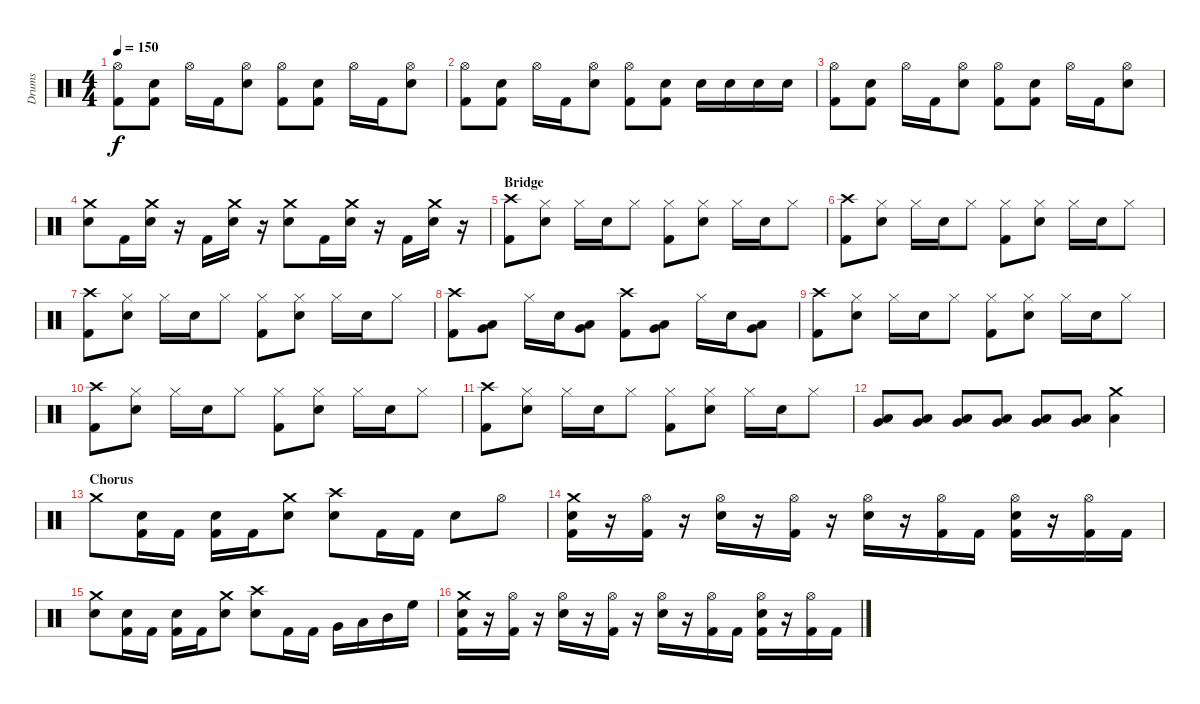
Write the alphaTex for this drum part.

\track ("Drums" "Drums") {instrument percussion}
\staff {score}
\articulation defaults
\ts (4 4)
\tempo 150
\clef neutral
\ks c
("Kick (hit) 2" "Hi-Hat (open)").8{dy f} ("Kick (hit) 2" "Snare (hit) 2").8 "Hi-Hat (open)".16 "Kick (hit) 2".16 ("Snare (hit) 2" "Hi-Hat (open)").8 ("Kick (hit) 2" "Hi-Hat (open)").8 ("Kick (hit) 2" "Snare (hit) 2").8 "Hi-Hat (open)".16 "Kick (hit) 2".16 ("Snare (hit) 2" "Hi-Hat (open)").8 |
("Kick (hit) 2" "Hi-Hat (open)").8 ("Kick (hit) 2" "Snare (hit) 2").8 "Hi-Hat (open)".16 "Kick (hit) 2".16 ("Snare (hit) 2" "Hi-Hat (open)").8 ("Kick (hit) 2" "Hi-Hat (open)").8 ("Kick (hit) 2" "Snare (hit) 2").8 "Snare (hit) 2".16 "Snare (hit) 2".16 "Snare (hit) 2".16 "Snare (hit) 2".16 |
("Kick (hit) 2" "Hi-Hat (open)").8 ("Kick (hit) 2" "Snare (hit) 2").8 "Hi-Hat (open)".16 "Kick (hit) 2".16 ("Snare (hit) 2" "Hi-Hat (open)").8 ("Kick (hit) 2" "Hi-Hat (open)").8 ("Kick (hit) 2" "Snare (hit) 2").8 "Hi-Hat (open)".16 "Kick (hit) 2".16 ("Snare (hit) 2" "Hi-Hat (open)").8 |
("Snare (hit) 2" "Crash medium (hit)").8 "Kick (hit) 2".16 ("Snare (hit) 2" "Crash medium (hit)").16 r.16 "Kick (hit) 2".16 ("Snare (hit) 2" "Crash medium (hit)").16 r.16 ("Snare (hit) 2" "Crash medium (hit)").8 "Kick (hit) 2".16 ("Snare (hit) 2" "Crash medium (hit)").16 r.16 "Kick (hit) 2".16 ("Snare (hit) 2" "Crash medium (hit)").16 r.16 |
\section ("" "Bridge")
("Kick (hit) 2" "Crash high (hit)").8 ("Snare (hit) 2" "Hi-Hat (closed)").8 "Hi-Hat (closed)".16 "Snare (hit) 2".16 "Hi-Hat (closed)".8 ("Kick (hit) 2" "Hi-Hat (closed)").8 ("Snare (hit) 2" "Hi-Hat (closed)").8 "Hi-Hat (closed)".16 "Snare (hit) 2".16 "Hi-Hat (closed)".8 |
("Kick (hit) 2" "Crash high (hit)").8 ("Snare (hit) 2" "Hi-Hat (closed)").8 "Hi-Hat (closed)".16 "Snare (hit) 2".16 "Hi-Hat (closed)".8 ("Kick (hit) 2" "Hi-Hat (closed)").8 ("Snare (hit) 2" "Hi-Hat (closed)").8 "Hi-Hat (closed)".16 "Snare (hit) 2".16 "Hi-Hat (closed)".8 |
("Kick (hit) 2" "Crash high (hit)").8 ("Snare (hit) 2" "Hi-Hat (closed)").8 "Hi-Hat (closed)".16 "Snare (hit) 2".16 "Hi-Hat (closed)".8 ("Kick (hit) 2" "Hi-Hat (closed)").8 ("Snare (hit) 2" "Hi-Hat (closed)").8 "Hi-Hat (closed)".16 "Snare (hit) 2".16 "Hi-Hat (closed)".8 |
("Kick (hit) 2" "Crash high (hit)").8 ("Low Tom (hit)" "Very Low Tom (hit)").8 "Hi-Hat (closed)".16 "Snare (hit) 2".16 ("Low Tom (hit)" "Very Low Tom (hit)").8 ("Kick (hit) 2" "Crash high (hit)").8 ("Low Tom (hit)" "Very Low Tom (hit)").8 "Hi-Hat (closed)".16 "Snare (hit) 2".16 ("Low Tom (hit)" "Very Low Tom (hit)").8 |
("Kick (hit) 2" "Crash high (hit)").8 ("Snare (hit) 2" "Hi-Hat (closed)").8 "Hi-Hat (closed)".16 "Snare (hit) 2".16 "Hi-Hat (closed)".8 ("Kick (hit) 2" "Hi-Hat (closed)").8 ("Snare (hit) 2" "Hi-Hat (closed)").8 "Hi-Hat (closed)".16 "Snare (hit) 2".16 "Hi-Hat (closed)".8 |
("Kick (hit) 2" "Crash high (hit)").8 ("Snare (hit) 2" "Hi-Hat (closed)").8 "Hi-Hat (closed)".16 "Snare (hit) 2".16 "Hi-Hat (closed)".8 ("Kick (hit) 2" "Hi-Hat (closed)").8 ("Snare (hit) 2" "Hi-Hat (closed)").8 "Hi-Hat (closed)".16 "Snare (hit) 2".16 "Hi-Hat (closed)".8 |
("Kick (hit) 2" "Crash high (hit)").8 ("Snare (hit) 2" "Hi-Hat (closed)").8 "Hi-Hat (closed)".16 "Snare (hit) 2".16 "Hi-Hat (closed)".8 ("Kick (hit) 2" "Hi-Hat (closed)").8 ("Snare (hit) 2" "Hi-Hat (closed)").8 "Hi-Hat (closed)".16 "Snare (hit) 2".16 "Hi-Hat (closed)".8 |
("Low Tom (hit)" "Very Low Tom (hit)").8 ("Low Tom (hit)" "Very Low Tom (hit)").8 ("Low Tom (hit)" "Very Low Tom (hit)").8 ("Low Tom (hit)" "Very Low Tom (hit)").8 ("Low Tom (hit)" "Very Low Tom (hit)").8 ("Low Tom (hit)" "Very Low Tom (hit)").8 ("Low Tom (hit)" "Crash medium (hit)").4 |
\section ("" "Chorus")
"Crash medium (hit)".8 ("Kick (hit) 2" "Snare (hit) 2").16 "Kick (hit) 2".16 ("Kick (hit) 2" "Snare (hit) 2").16 "Kick (hit) 2".16 ("Snare (hit) 2" "Crash medium (hit)").8 ("Snare (hit) 2" "Crash high (hit)").8 "Kick (hit) 2".16 "Kick (hit) 2".16 "Snare (hit) 2".8 "Hi-Hat (open)".8 |
("Kick (hit) 2" "Snare (hit) 2" "Crash medium (hit)").16 r.16 ("Kick (hit) 2" "Hi-Hat (open)").16 r.16 ("Snare (hit) 2" "Hi-Hat (open)").16 r.16 ("Kick (hit) 2" "Hi-Hat (open)").16 r.16 ("Snare (hit) 2" "Hi-Hat (open)").16 r.16 ("Kick (hit) 2" "Hi-Hat (open)").16 "Kick (hit) 2".16 ("Kick (hit) 2" "Snare (hit) 2" "Hi-Hat (open)").16 r.16 ("Kick (hit) 2" "Hi-Hat (open)").16 "Kick (hit) 2".16 |
("Snare (hit) 2" "Crash medium (hit)").8 ("Kick (hit) 2" "Snare (hit) 2").16 "Kick (hit) 2".16 ("Kick (hit) 2" "Snare (hit) 2").16 "Kick (hit) 2".16 ("Snare (hit) 2" "Crash medium (hit)").8 ("Snare (hit) 2" "Crash high (hit)").8 "Kick (hit) 2".16 "Kick (hit) 2".16 "Very Low Tom (hit)".16 "Low Tom (hit)".16 "Mid Tom (hit)".16 "High Floor Tom (hit)".16 |
("Kick (hit) 2" "Snare (hit) 2" "Crash medium (hit)").16 r.16 ("Kick (hit) 2" "Hi-Hat (open)").16 r.16 ("Snare (hit) 2" "Hi-Hat (open)").16 r.16 ("Kick (hit) 2" "Hi-Hat (open)").16 r.16 ("Snare (hit) 2" "Hi-Hat (open)").16 r.16 ("Kick (hit) 2" "Hi-Hat (open)").16 "Kick (hit) 2".16 ("Kick (hit) 2" "Snare (hit) 2" "Hi-Hat (open)").16 r.16 ("Kick (hit) 2" "Hi-Hat (open)").16 "Kick (hit) 2".16
